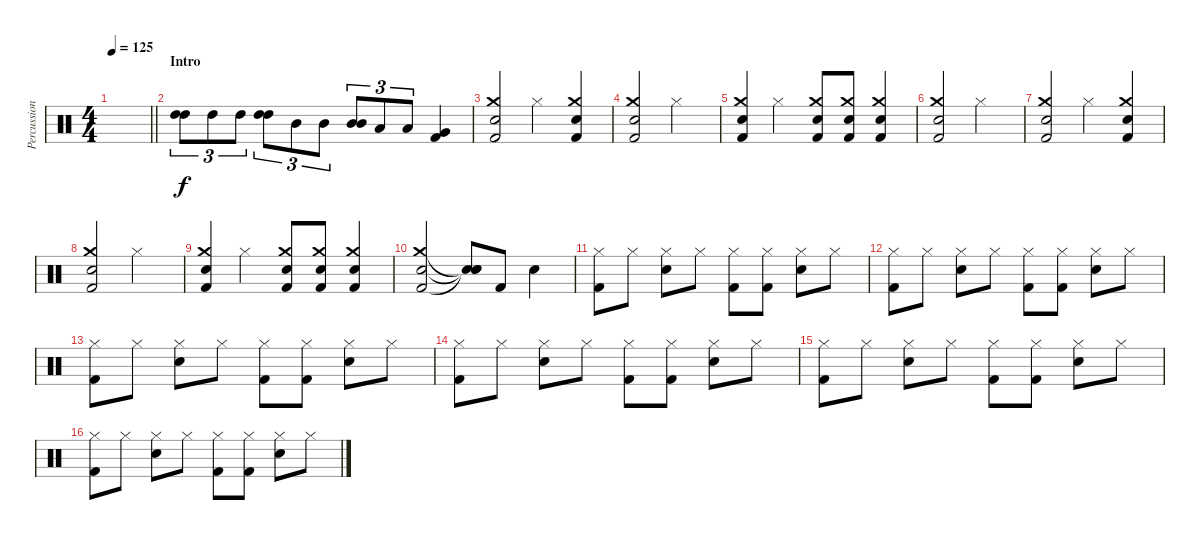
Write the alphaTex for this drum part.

\track ("Percussion" "Percussion") {instrument percussion}
\staff {score}
\articulation defaults
\ts (4 4)
\tempo 125
\clef neutral
\barLineRight lightlight
\ks c
|
\section ("" "Intro")
("High Tom (hit)" "High Tom (hit)").8{tu (3 2)} "High Tom (hit)".8{tu (3 2)} "High Tom (hit)".8{tu (3 2)} ("High Tom (hit)" "High Tom (hit)").8{tu (3 2)} "Mid Tom (hit)".8{tu (3 2)} "Mid Tom (hit)".8{tu (3 2)} ("Mid Tom (hit)" "Mid Tom (hit)").8{tu (3 2)} "Low Tom (hit)".8{tu (3 2)} "Low Tom (hit)".8{tu (3 2)} ("Very Low Tom (hit)" "Kick (hit) 2").4 |
("Crash medium (hit)" "Snare (hit) 2" "Kick (hit) 2").2{dy f} "Hi-Hat (closed)".4 ("Crash medium (hit)" "Snare (hit) 2" "Kick (hit) 2").4 |
("Crash medium (hit)" "Snare (hit) 2" "Kick (hit) 2").2 "Hi-Hat (closed)".2 |
("Crash medium (hit)" "Snare (hit) 2" "Kick (hit) 2").4 "Hi-Hat (closed)".4 ("Crash medium (hit)" "Snare (hit) 2" "Kick (hit) 2").8 ("Crash medium (hit)" "Snare (hit) 2" "Kick (hit) 2").8 ("Crash medium (hit)" "Snare (hit) 2" "Kick (hit) 2").4 |
("Crash medium (hit)" "Snare (hit) 2" "Kick (hit) 2").2 "Hi-Hat (closed)".2 |
("Crash medium (hit)" "Snare (hit) 2" "Kick (hit) 2").2 "Hi-Hat (closed)".4 ("Crash medium (hit)" "Snare (hit) 2" "Kick (hit) 2").4 |
("Crash medium (hit)" "Snare (hit) 2" "Kick (hit) 2").2 "Hi-Hat (closed)".2 |
("Crash medium (hit)" "Snare (hit) 2" "Kick (hit) 2").4 "Hi-Hat (closed)".4 ("Crash medium (hit)" "Snare (hit) 2" "Kick (hit) 2").8 ("Crash medium (hit)" "Snare (hit) 2" "Kick (hit) 2").8 ("Crash medium (hit)" "Snare (hit) 2" "Kick (hit) 2").4 |
("Crash medium (hit)" "Snare (hit) 2" "Kick (hit) 2").2 ("Snare (hit)"{t} "Snare (hit)"{t} "Snare (hit)"{t}).8 "Kick (hit) 2".8 "Snare (hit) 2".4 |
("Hi-Hat (closed)" "Kick (hit) 2").8 "Hi-Hat (closed)".8 ("Hi-Hat (closed)" "Snare (hit) 2").8 "Hi-Hat (closed)".8 ("Hi-Hat (closed)" "Kick (hit) 2").8 ("Hi-Hat (closed)" "Kick (hit) 2").8 ("Hi-Hat (closed)" "Snare (hit) 2").8 "Hi-Hat (closed)".8 |
("Hi-Hat (closed)" "Kick (hit) 2").8 "Hi-Hat (closed)".8 ("Hi-Hat (closed)" "Snare (hit) 2").8 "Hi-Hat (closed)".8 ("Hi-Hat (closed)" "Kick (hit) 2").8 ("Hi-Hat (closed)" "Kick (hit) 2").8 ("Hi-Hat (closed)" "Snare (hit) 2").8 "Hi-Hat (closed)".8 |
("Hi-Hat (closed)" "Kick (hit) 2").8 "Hi-Hat (closed)".8 ("Hi-Hat (closed)" "Snare (hit) 2").8 "Hi-Hat (closed)".8 ("Hi-Hat (closed)" "Kick (hit) 2").8 ("Hi-Hat (closed)" "Kick (hit) 2").8 ("Hi-Hat (closed)" "Snare (hit) 2").8 "Hi-Hat (closed)".8 |
("Hi-Hat (closed)" "Kick (hit) 2").8 "Hi-Hat (closed)".8 ("Hi-Hat (closed)" "Snare (hit) 2").8 "Hi-Hat (closed)".8 ("Hi-Hat (closed)" "Kick (hit) 2").8 ("Hi-Hat (closed)" "Kick (hit) 2").8 ("Hi-Hat (closed)" "Snare (hit) 2").8 "Hi-Hat (closed)".8 |
("Hi-Hat (closed)" "Kick (hit) 2").8 "Hi-Hat (closed)".8 ("Hi-Hat (closed)" "Snare (hit) 2").8 "Hi-Hat (closed)".8 ("Hi-Hat (closed)" "Kick (hit) 2").8 ("Hi-Hat (closed)" "Kick (hit) 2").8 ("Hi-Hat (closed)" "Snare (hit) 2").8 "Hi-Hat (closed)".8 |
("Hi-Hat (closed)" "Kick (hit) 2").8 "Hi-Hat (closed)".8 ("Hi-Hat (closed)" "Snare (hit) 2").8 "Hi-Hat (closed)".8 ("Hi-Hat (closed)" "Kick (hit) 2").8 ("Hi-Hat (closed)" "Kick (hit) 2").8 ("Hi-Hat (closed)" "Snare (hit) 2").8 "Hi-Hat (closed)".8
